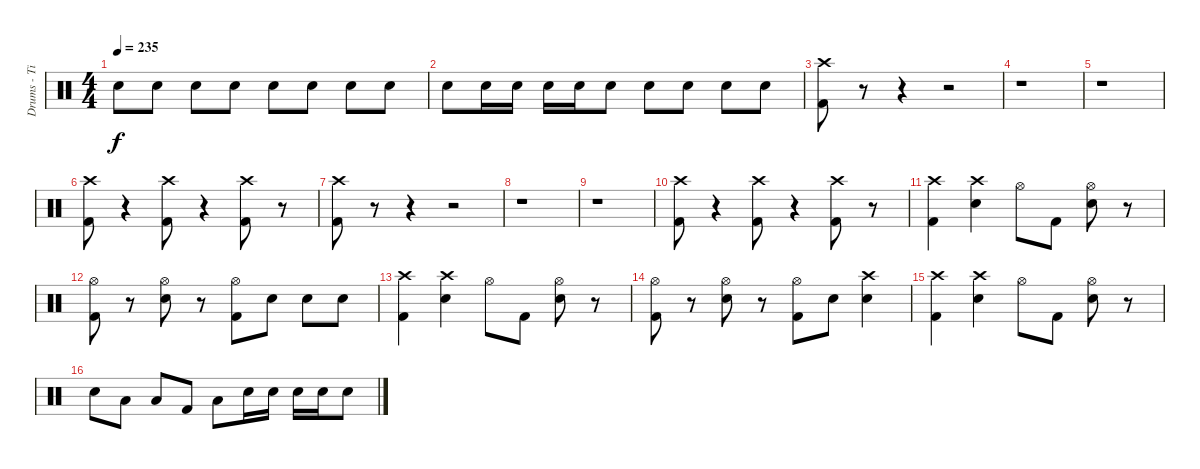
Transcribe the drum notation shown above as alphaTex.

\track ("Drums - Tim \"Herb\" Alexander" "Drums - Ti") {instrument percussion}
\staff {score}
\articulation defaults
\ts (4 4)
\tempo 235
\clef neutral
\ks c "Snare (hit) 2".8{dy f} "Snare (hit) 2".8 "Snare (hit) 2".8 "Snare (hit) 2".8 "Snare (hit) 2".8 "Snare (hit) 2".8 "Snare (hit) 2".8 "Snare (hit) 2".8
|
"Snare (hit) 2".8 "Snare (hit) 2".16 "Snare (hit) 2".16 "Snare (hit) 2".16 "Snare (hit) 2".16 "Snare (hit) 2".8 "Snare (hit) 2".8 "Snare (hit) 2".8 "Snare (hit) 2".8 "Snare (hit) 2".8 |
("Crash high (hit)" "Kick (hit) 2").8 r.8 r.4 r.2 |
r.1 |
r.1 |
("Crash high (hit)" "Kick (hit) 2").8 r.4 ("Crash high (hit)" "Kick (hit) 2").8 r.4 ("Crash high (hit)" "Kick (hit) 2").8 r.8 |
("Crash high (hit)" "Kick (hit) 2").8 r.8 r.4 r.2 |
r.1 |
r.1 |
("Crash high (hit)" "Kick (hit) 2").8 r.4 ("Crash high (hit)" "Kick (hit) 2").8 r.4 ("Crash high (hit)" "Kick (hit) 2").8 r.8 |
("Crash high (hit)" "Kick (hit) 2").4 ("Crash high (hit)" "Snare (hit) 2").4 "Hi-Hat (open)".8 "Kick (hit) 2".8 ("Hi-Hat (open)" "Snare (hit) 2").8 r.8 |
("Hi-Hat (open)" "Kick (hit) 2").8 r.8 ("Hi-Hat (open)" "Snare (hit) 2").8 r.8 ("Hi-Hat (open)" "Kick (hit) 2").8 "Snare (hit) 2".8 "Snare (hit) 2".8 "Snare (hit) 2".8 |
("Crash high (hit)" "Kick (hit) 2").4 ("Crash high (hit)" "Snare (hit) 2").4 "Hi-Hat (open)".8 "Kick (hit) 2".8 ("Hi-Hat (open)" "Snare (hit) 2").8 r.8 |
("Hi-Hat (open)" "Kick (hit) 2").8 r.8 ("Hi-Hat (open)" "Snare (hit) 2").8 r.8 ("Hi-Hat (open)" "Kick (hit) 2").8 "Snare (hit) 2".8 ("Crash high (hit)" "Snare (hit) 2").4 |
("Crash high (hit)" "Kick (hit) 2").4 ("Crash high (hit)" "Snare (hit) 2").4 "Hi-Hat (open)".8 "Kick (hit) 2".8 ("Hi-Hat (open)" "Snare (hit) 2").8 r.8 |
"Snare (hit) 2".8 "Low Tom (hit)".8 "Low Tom (hit)".8 "Kick (hit) 2".8 "Low Tom (hit)".8 "Snare (hit) 2".16 "Snare (hit) 2".16 "Snare (hit) 2".16 "Snare (hit) 2".16 "Snare (hit) 2".8
